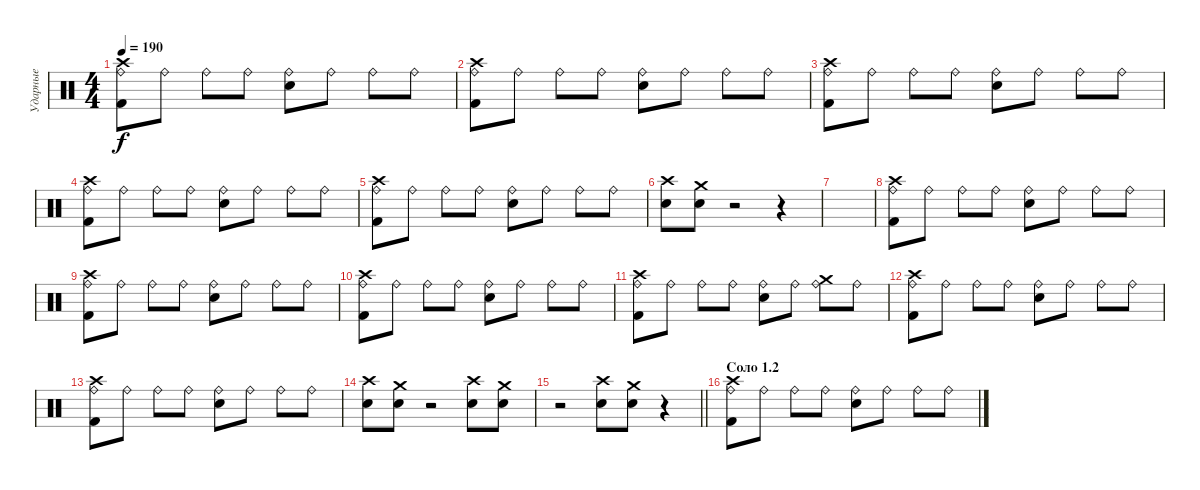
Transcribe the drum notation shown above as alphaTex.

\track ("Ударные" "Ударные") {instrument percussion}
\staff {score}
\articulation defaults
\ts (4 4)
\tempo 190
\clef neutral
\ks c
("Crash high (hit)" "Ride (bell)" "Kick (hit) 2").8{dy f} "Ride (bell)".8 "Ride (bell)".8 "Ride (bell)".8 ("Ride (bell)" "Electric Snare (hit)").8 "Ride (bell)".8 "Ride (bell)".8 "Ride (bell)".8 |
("Crash high (hit)" "Ride (bell)" "Kick (hit) 2").8 "Ride (bell)".8 "Ride (bell)".8 "Ride (bell)".8 ("Ride (bell)" "Electric Snare (hit)").8 "Ride (bell)".8 "Ride (bell)".8 "Ride (bell)".8 |
("Crash high (hit)" "Ride (bell)" "Kick (hit) 2").8 "Ride (bell)".8 "Ride (bell)".8 "Ride (bell)".8 ("Ride (bell)" "Electric Snare (hit)").8 "Ride (bell)".8 "Ride (bell)".8 "Ride (bell)".8 |
("Crash high (hit)" "Ride (bell)" "Kick (hit) 2").8 "Ride (bell)".8 "Ride (bell)".8 "Ride (bell)".8 ("Ride (bell)" "Electric Snare (hit)").8 "Ride (bell)".8 "Ride (bell)".8 "Ride (bell)".8 |
("Crash high (hit)" "Ride (bell)" "Kick (hit) 2").8 "Ride (bell)".8 "Ride (bell)".8 "Ride (bell)".8 ("Ride (bell)" "Electric Snare (hit)").8 "Ride (bell)".8 "Ride (bell)".8 "Ride (bell)".8 |
("Crash high (hit)" "Snare (hit) 2").8 ("Crash medium (hit)" "Snare (hit) 2").8 r.2 r.4 |
|
("Crash high (hit)" "Ride (bell)" "Kick (hit) 2").8 "Ride (bell)".8 "Ride (bell)".8 "Ride (bell)".8 ("Ride (bell)" "Electric Snare (hit)").8 "Ride (bell)".8 "Ride (bell)".8 "Ride (bell)".8 |
("Crash high (hit)" "Ride (bell)" "Kick (hit) 2").8 "Ride (bell)".8 "Ride (bell)".8 "Ride (bell)".8 ("Ride (bell)" "Electric Snare (hit)").8 "Ride (bell)".8 "Ride (bell)".8 "Ride (bell)".8 |
("Crash high (hit)" "Ride (bell)" "Kick (hit) 2").8 "Ride (bell)".8 "Ride (bell)".8 "Ride (bell)".8 ("Ride (bell)" "Electric Snare (hit)").8 "Ride (bell)".8 "Ride (bell)".8 "Ride (bell)".8 |
("Crash high (hit)" "Ride (bell)" "Kick (hit) 2").8 "Ride (bell)".8 "Ride (bell)".8 "Ride (bell)".8 ("Ride (bell)" "Electric Snare (hit)").8 "Ride (bell)".8 ("Crash medium (hit)" "Ride (bell)").8 "Ride (bell)".8 |
("Crash high (hit)" "Ride (bell)" "Kick (hit) 2").8 "Ride (bell)".8 "Ride (bell)".8 "Ride (bell)".8 ("Ride (bell)" "Electric Snare (hit)").8 "Ride (bell)".8 "Ride (bell)".8 "Ride (bell)".8 |
("Crash high (hit)" "Ride (bell)" "Kick (hit) 2").8 "Ride (bell)".8 "Ride (bell)".8 "Ride (bell)".8 ("Ride (bell)" "Electric Snare (hit)").8 "Ride (bell)".8 "Ride (bell)".8 "Ride (bell)".8 |
("Crash high (hit)" "Snare (hit) 2").8 ("Crash medium (hit)" "Snare (hit) 2").8 r.2 ("Crash high (hit)" "Snare (hit) 2").8 ("Crash medium (hit)" "Snare (hit) 2").8 |
\barLineRight lightlight
r.2 ("Crash high (hit)" "Snare (hit) 2").8 ("Crash medium (hit)" "Snare (hit) 2").8 r.4 |
\section ("" "Соло 1.2")
("Crash high (hit)" "Ride (bell)" "Kick (hit) 2").8 "Ride (bell)".8 "Ride (bell)".8 "Ride (bell)".8 ("Ride (bell)" "Electric Snare (hit)").8 "Ride (bell)".8 "Ride (bell)".8 "Ride (bell)".8
